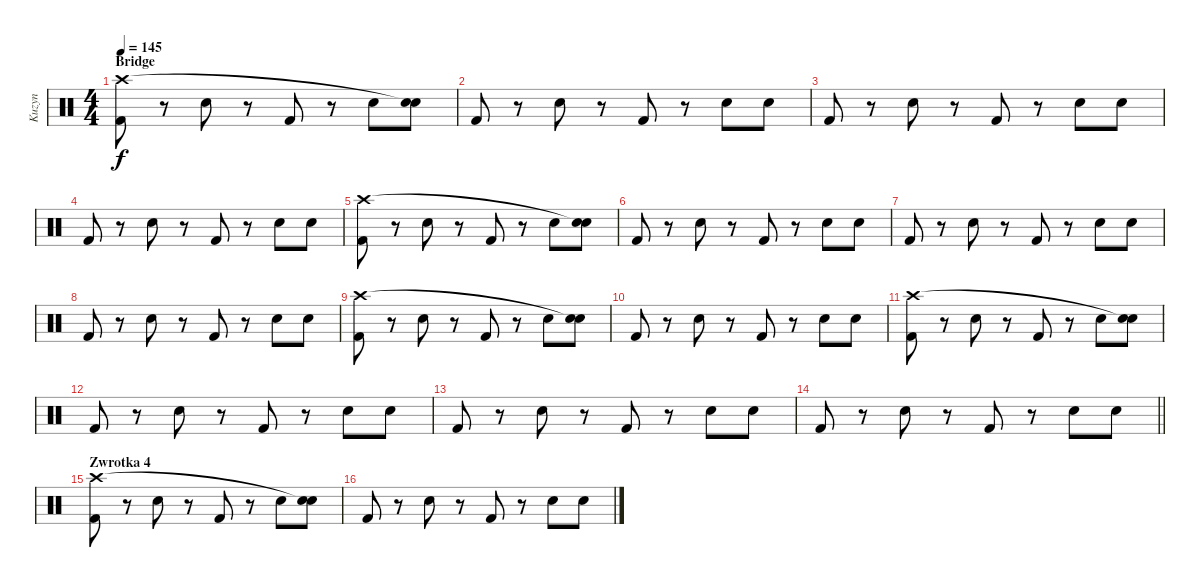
\track ("Kuzyn" "Kuzyn") {instrument percussion}
\staff {score}
\articulation defaults
\ts (4 4)
\section ("" "Bridge")
\tempo 145
\clef neutral
\ks c
("Kick (hit) 2" "Crash high (hit)").8{dy f} r.8 "Snare (hit) 2".8 r.8 "Kick (hit) 2".8 r.8 "Snare (hit) 2".8 ("Snare (hit) 2" "Snare (hit)"{t}).8 |
"Kick (hit) 2".8 r.8 "Snare (hit) 2".8 r.8 "Kick (hit) 2".8 r.8 "Snare (hit) 2".8 "Snare (hit) 2".8 |
"Kick (hit) 2".8 r.8 "Snare (hit) 2".8 r.8 "Kick (hit) 2".8 r.8 "Snare (hit) 2".8 "Snare (hit) 2".8 |
"Kick (hit) 2".8 r.8 "Snare (hit) 2".8 r.8 "Kick (hit) 2".8 r.8 "Snare (hit) 2".8 "Snare (hit) 2".8 |
("Kick (hit) 2" "Crash high (hit)").8 r.8 "Snare (hit) 2".8 r.8 "Kick (hit) 2".8 r.8 "Snare (hit) 2".8 ("Snare (hit) 2" "Snare (hit)"{t}).8 |
"Kick (hit) 2".8 r.8 "Snare (hit) 2".8 r.8 "Kick (hit) 2".8 r.8 "Snare (hit) 2".8 "Snare (hit) 2".8 |
"Kick (hit) 2".8 r.8 "Snare (hit) 2".8 r.8 "Kick (hit) 2".8 r.8 "Snare (hit) 2".8 "Snare (hit) 2".8 |
"Kick (hit) 2".8 r.8 "Snare (hit) 2".8 r.8 "Kick (hit) 2".8 r.8 "Snare (hit) 2".8 "Snare (hit) 2".8 |
("Kick (hit) 2" "Crash high (hit)").8 r.8 "Snare (hit) 2".8 r.8 "Kick (hit) 2".8 r.8 "Snare (hit) 2".8 ("Snare (hit) 2" "Snare (hit)"{t}).8 |
"Kick (hit) 2".8 r.8 "Snare (hit) 2".8 r.8 "Kick (hit) 2".8 r.8 "Snare (hit) 2".8 "Snare (hit) 2".8 |
("Kick (hit) 2" "Crash high (hit)").8 r.8 "Snare (hit) 2".8 r.8 "Kick (hit) 2".8 r.8 "Snare (hit) 2".8 ("Snare (hit) 2" "Snare (hit)"{t}).8 |
"Kick (hit) 2".8 r.8 "Snare (hit) 2".8 r.8 "Kick (hit) 2".8 r.8 "Snare (hit) 2".8 "Snare (hit) 2".8 |
"Kick (hit) 2".8 r.8 "Snare (hit) 2".8 r.8 "Kick (hit) 2".8 r.8 "Snare (hit) 2".8 "Snare (hit) 2".8 |
\barLineRight lightlight "Kick (hit) 2".8
r.8 "Snare (hit) 2".8 r.8 "Kick (hit) 2".8 r.8 "Snare (hit) 2".8 "Snare (hit) 2".8 |
\section ("" "Zwrotka 4")
("Kick (hit) 2" "Crash high (hit)").8 r.8 "Snare (hit) 2".8 r.8 "Kick (hit) 2".8 r.8 "Snare (hit) 2".8 ("Snare (hit) 2" "Snare (hit)"{t}).8 |
"Kick (hit) 2".8 r.8 "Snare (hit) 2".8 r.8 "Kick (hit) 2".8 r.8 "Snare (hit) 2".8 "Snare (hit) 2".8
